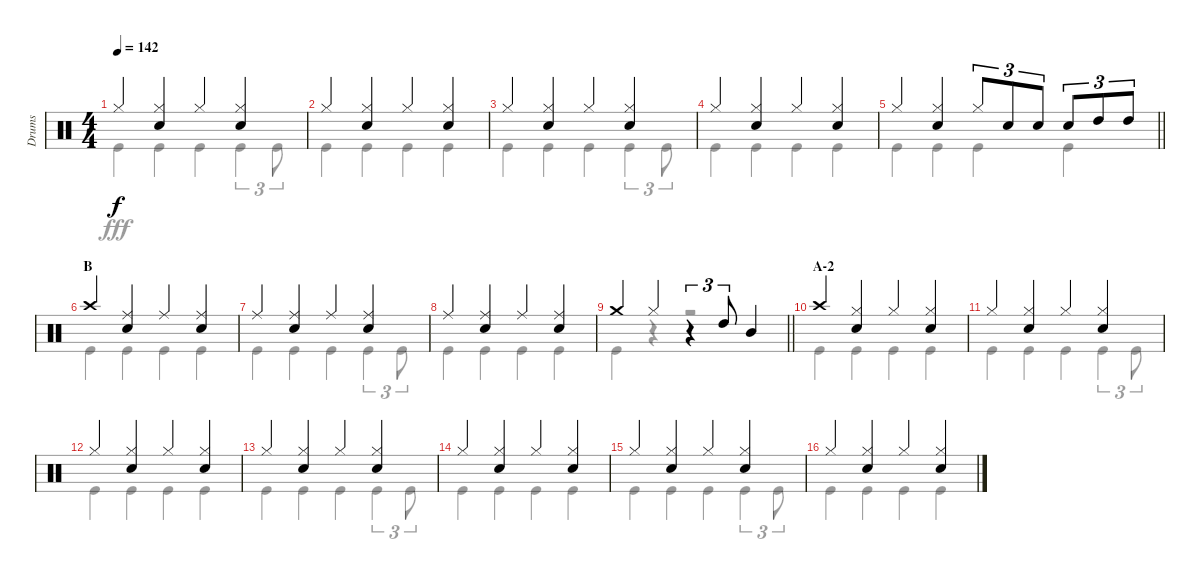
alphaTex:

\track ("Drums" "Drums") {instrument percussion}
\staff {score}
\articulation defaults
\voice
\ts (4 4)
\tempo 142
\clef neutral
\ks c "Hi-Hat (closed)".4{dy f}
("Hi-Hat (closed)" "Snare (hit) 2").4 "Hi-Hat (closed)".4 ("Hi-Hat (closed)" "Snare (hit) 2").4 |
"Hi-Hat (closed)".4 ("Hi-Hat (closed)" "Snare (hit) 2").4 "Hi-Hat (closed)".4 ("Hi-Hat (closed)" "Snare (hit) 2").4 |
"Hi-Hat (closed)".4 ("Hi-Hat (closed)" "Snare (hit) 2").4 "Hi-Hat (closed)".4 ("Hi-Hat (closed)" "Snare (hit) 2").4 |
"Hi-Hat (closed)".4 ("Hi-Hat (closed)" "Snare (hit) 2").4 "Hi-Hat (closed)".4 ("Hi-Hat (closed)" "Snare (hit) 2").4 |
\barLineRight lightlight "Hi-Hat (closed)".4
("Hi-Hat (closed)" "Snare (hit) 2").4 "Hi-Hat (closed)".8{tu (3 2)} "Snare (hit) 2".8{tu (3 2)} "Snare (hit) 2".8{tu (3 2)} "Snare (hit) 2".8{tu (3 2)} "High Tom (hit)".8{tu (3 2)} "High Tom (hit)".8{tu (3 2)} |
\section ("" "B")
"Crash high (hit)".4 ("Ride (middle)" "Snare (hit) 2").4 "Ride (middle)".4 ("Ride (middle)" "Snare (hit) 2").4 |
"Ride (middle)".4 ("Ride (middle)" "Snare (hit) 2").4 "Ride (middle)".4 ("Ride (middle)" "Snare (hit) 2").4 |
"Ride (middle)".4 ("Ride (middle)" "Snare (hit) 2").4 "Ride (middle)".4 ("Ride (middle)" "Snare (hit) 2").4 |
\barLineRight lightlight "Crash medium (hit)".4 "Hi-Hat (closed)".4
r.4{tu (3 2)} "High Tom (hit)".8{tu (3 2)} "Mid Tom (hit)".4 |
\section ("" "A-2")
"Crash high (hit)".4 ("Hi-Hat (closed)" "Snare (hit) 2").4 "Hi-Hat (closed)".4 ("Hi-Hat (closed)" "Snare (hit) 2").4 |
"Hi-Hat (closed)".4 ("Hi-Hat (closed)" "Snare (hit) 2").4 "Hi-Hat (closed)".4 ("Hi-Hat (closed)" "Snare (hit) 2").4 |
"Hi-Hat (closed)".4 ("Hi-Hat (closed)" "Snare (hit) 2").4 "Hi-Hat (closed)".4 ("Hi-Hat (closed)" "Snare (hit) 2").4 |
"Hi-Hat (closed)".4 ("Hi-Hat (closed)" "Snare (hit) 2").4 "Hi-Hat (closed)".4 ("Hi-Hat (closed)" "Snare (hit) 2").4 |
"Hi-Hat (closed)".4 ("Hi-Hat (closed)" "Snare (hit) 2").4 "Hi-Hat (closed)".4 ("Hi-Hat (closed)" "Snare (hit) 2").4 |
"Hi-Hat (closed)".4 ("Hi-Hat (closed)" "Snare (hit) 2").4 "Hi-Hat (closed)".4 ("Hi-Hat (closed)" "Snare (hit) 2").4 |
"Hi-Hat (closed)".4 ("Hi-Hat (closed)" "Snare (hit) 2").4 "Hi-Hat (closed)".4 ("Hi-Hat (closed)" "Snare (hit) 2").4
\voice
\clef neutral
\ottava regular
\simile none
\ks c "Kick (hit)".4{dy fff} "Kick (hit)".4 "Kick (hit)".4 "Kick (hit)".4{tu (3 2)} "Kick (hit)".8{tu (3 2)}
|
"Kick (hit)".4 "Kick (hit)".4 "Kick (hit)".4 "Kick (hit)".4 |
"Kick (hit)".4 "Kick (hit)".4 "Kick (hit)".4 "Kick (hit)".4{tu (3 2)} "Kick (hit)".8{tu (3 2)} |
"Kick (hit)".4 "Kick (hit)".4 "Kick (hit)".4 "Kick (hit)".4 |
\barLineRight lightlight "Kick (hit)".4 "Kick (hit)".4 "Kick (hit)".4 "Kick (hit)".4
|
"Kick (hit)".4 "Kick (hit)".4 "Kick (hit)".4 "Kick (hit)".4 |
"Kick (hit)".4 "Kick (hit)".4 "Kick (hit)".4 "Kick (hit)".4{tu (3 2)} "Kick (hit)".8{tu (3 2)} |
"Kick (hit)".4 "Kick (hit)".4 "Kick (hit)".4 "Kick (hit)".4 |
\barLineRight lightlight "Kick (hit)".4
r.4 r.2 |
"Kick (hit)".4 "Kick (hit)".4 "Kick (hit)".4 "Kick (hit)".4 |
"Kick (hit)".4 "Kick (hit)".4 "Kick (hit)".4 "Kick (hit)".4{tu (3 2)} "Kick (hit)".8{tu (3 2)} |
"Kick (hit)".4 "Kick (hit)".4 "Kick (hit)".4 "Kick (hit)".4 |
"Kick (hit)".4 "Kick (hit)".4 "Kick (hit)".4 "Kick (hit)".4{tu (3 2)} "Kick (hit)".8{tu (3 2)} |
"Kick (hit)".4 "Kick (hit)".4 "Kick (hit)".4 "Kick (hit)".4 |
"Kick (hit)".4 "Kick (hit)".4 "Kick (hit)".4 "Kick (hit)".4{tu (3 2)} "Kick (hit)".8{tu (3 2)} |
"Kick (hit)".4 "Kick (hit)".4 "Kick (hit)".4 "Kick (hit)".4
